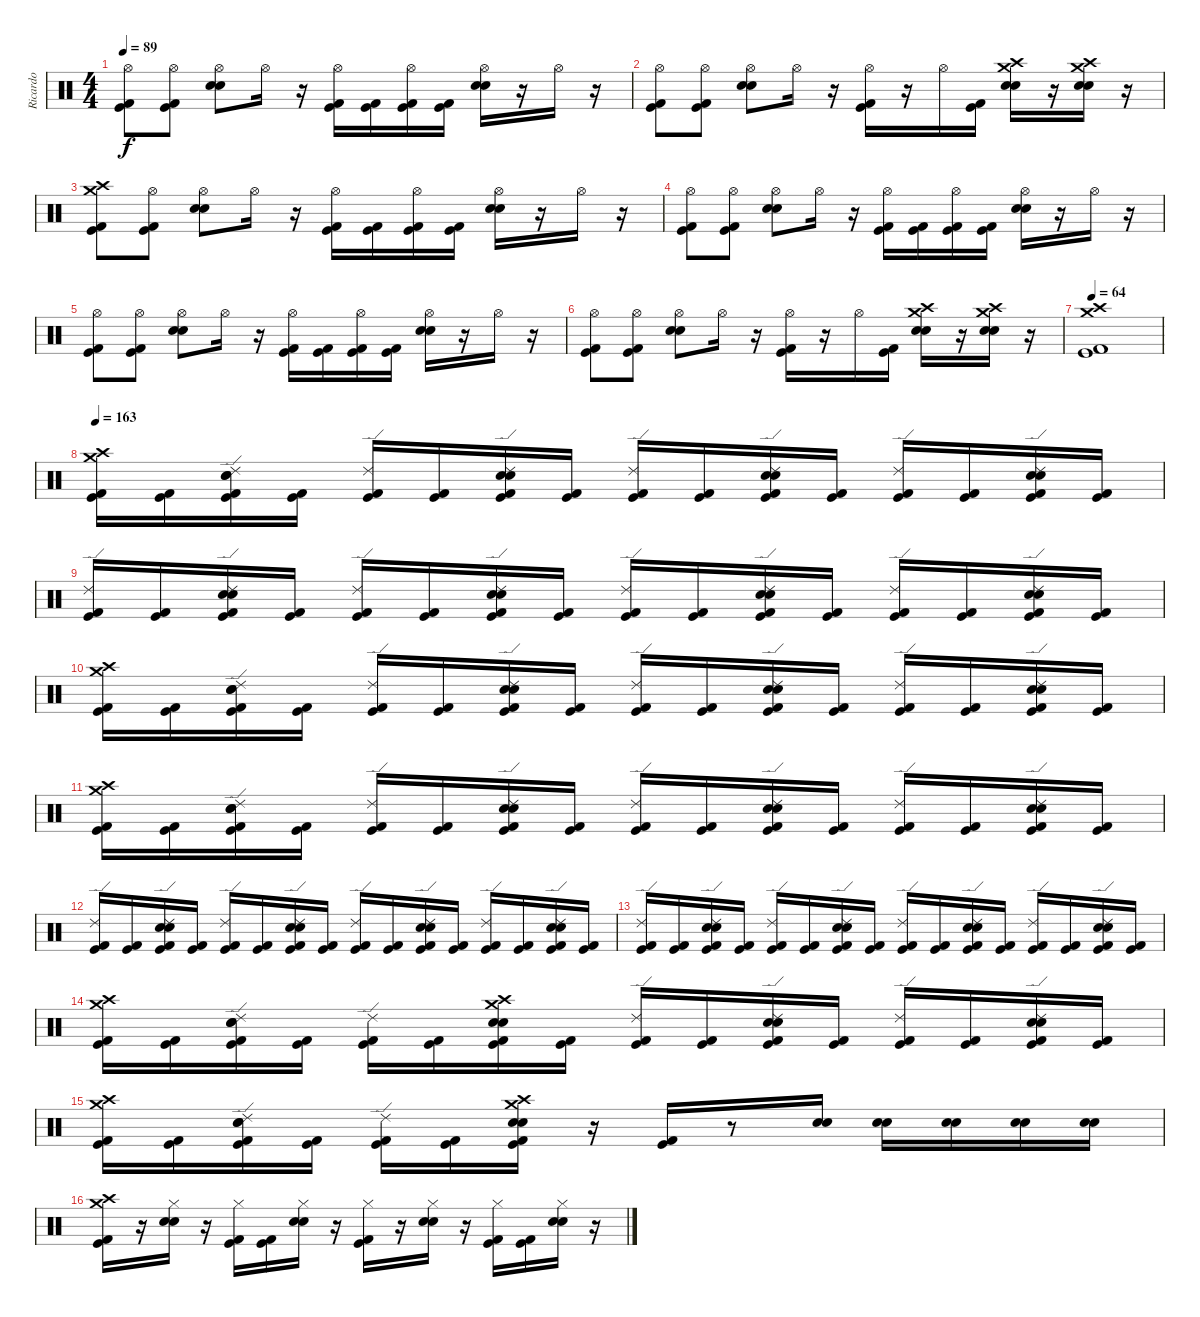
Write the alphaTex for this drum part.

\track ("Ricardo" "Ricardo") {instrument percussion}
\staff {score}
\articulation defaults
\ts (4 4)
\tempo 89
\clef neutral
\ks c
("Hi-Hat (open)" "Kick (hit) 2" "Kick (hit)").8{dy f} ("Hi-Hat (open)" "Kick (hit) 2" "Kick (hit)").8 ("Hi-Hat (open)" "Electric Snare (hit)" "Snare (hit) 2").8 "Hi-Hat (open)".16 r.16 ("Hi-Hat (open)" "Kick (hit) 2" "Kick (hit)").16 ("Kick (hit) 2" "Kick (hit)").16 ("Hi-Hat (open)" "Kick (hit) 2" "Kick (hit)").16 ("Kick (hit) 2" "Kick (hit)").16 ("Hi-Hat (open)" "Electric Snare (hit)" "Snare (hit) 2").16 r.16 "Hi-Hat (open)".16 r.16 |
("Hi-Hat (open)" "Kick (hit) 2" "Kick (hit)").8 ("Hi-Hat (open)" "Kick (hit) 2" "Kick (hit)").8 ("Hi-Hat (open)" "Electric Snare (hit)" "Snare (hit) 2").8 "Hi-Hat (open)".16 r.16 ("Hi-Hat (open)" "Kick (hit) 2" "Kick (hit)").16 r.16 "Hi-Hat (open)".16 ("Kick (hit) 2" "Kick (hit)").16 ("Crash high (hit)" "Crash medium (hit)" "Electric Snare (hit)" "Snare (hit) 2").16 r.16 ("Crash high (hit)" "Electric Snare (hit)" "Snare (hit) 2" "Crash medium (hit)").16 r.16 |
("Crash medium (hit)" "Crash high (hit)" "Kick (hit) 2" "Kick (hit)").8 ("Hi-Hat (open)" "Kick (hit) 2" "Kick (hit)").8 ("Hi-Hat (open)" "Electric Snare (hit)" "Snare (hit) 2").8 "Hi-Hat (open)".16 r.16 ("Hi-Hat (open)" "Kick (hit) 2" "Kick (hit)").16 ("Kick (hit) 2" "Kick (hit)").16 ("Hi-Hat (open)" "Kick (hit) 2" "Kick (hit)").16 ("Kick (hit) 2" "Kick (hit)").16 ("Hi-Hat (open)" "Electric Snare (hit)" "Snare (hit) 2").16 r.16 "Hi-Hat (open)".16 r.16 |
("Hi-Hat (open)" "Kick (hit) 2" "Kick (hit)").8 ("Hi-Hat (open)" "Kick (hit) 2" "Kick (hit)").8 ("Hi-Hat (open)" "Electric Snare (hit)" "Snare (hit) 2").8 "Hi-Hat (open)".16 r.16 ("Hi-Hat (open)" "Kick (hit) 2" "Kick (hit)").16 ("Kick (hit) 2" "Kick (hit)").16 ("Hi-Hat (open)" "Kick (hit) 2" "Kick (hit)").16 ("Kick (hit) 2" "Kick (hit)").16 ("Hi-Hat (open)" "Electric Snare (hit)" "Snare (hit) 2").16 r.16 "Hi-Hat (open)".16 r.16 |
("Hi-Hat (open)" "Kick (hit) 2" "Kick (hit)").8 ("Hi-Hat (open)" "Kick (hit) 2" "Kick (hit)").8 ("Hi-Hat (open)" "Electric Snare (hit)" "Snare (hit) 2").8 "Hi-Hat (open)".16 r.16 ("Hi-Hat (open)" "Kick (hit) 2" "Kick (hit)").16 ("Kick (hit) 2" "Kick (hit)").16 ("Hi-Hat (open)" "Kick (hit) 2" "Kick (hit)").16 ("Kick (hit) 2" "Kick (hit)").16 ("Hi-Hat (open)" "Electric Snare (hit)" "Snare (hit) 2").16 r.16 "Hi-Hat (open)".16 r.16 |
("Hi-Hat (open)" "Kick (hit) 2" "Kick (hit)").8 ("Hi-Hat (open)" "Kick (hit) 2" "Kick (hit)").8 ("Hi-Hat (open)" "Electric Snare (hit)" "Snare (hit) 2").8 "Hi-Hat (open)".16 r.16 ("Hi-Hat (open)" "Kick (hit) 2" "Kick (hit)").16 r.16 "Hi-Hat (open)".16 ("Kick (hit) 2" "Kick (hit)").16 ("Crash high (hit)" "Crash medium (hit)" "Electric Snare (hit)" "Snare (hit) 2").16 r.16 ("Crash high (hit)" "Electric Snare (hit)" "Snare (hit) 2" "Crash medium (hit)").16 r.16 |
\tempo 64
("Kick (hit) 2" "Kick (hit)" "Crash high (hit)" "Crash medium (hit)").1 |
\tempo 163
("Crash high (hit)" "Crash medium (hit)" "Kick (hit) 2" "Kick (hit)").16 ("Kick (hit) 2" "Kick (hit)").16 ("Electric Snare (hit)" "Snare (hit) 2" "Ride (edge) 2" "Kick (hit) 2" "Kick (hit)").16 ("Kick (hit) 2" "Kick (hit)").16 ("Ride (edge) 2" "Kick (hit) 2" "Kick (hit)").16 ("Kick (hit) 2" "Kick (hit)").16 ("Electric Snare (hit)" "Snare (hit) 2" "Ride (edge) 2" "Kick (hit)" "Kick (hit) 2").16 ("Kick (hit) 2" "Kick (hit)").16 ("Ride (edge) 2" "Kick (hit) 2" "Kick (hit)").16 ("Kick (hit) 2" "Kick (hit)").16 ("Electric Snare (hit)" "Snare (hit) 2" "Ride (edge) 2" "Kick (hit) 2" "Kick (hit)").16 ("Kick (hit) 2" "Kick (hit)").16 ("Ride (edge) 2" "Kick (hit) 2" "Kick (hit)").16 ("Kick (hit) 2" "Kick (hit)").16 ("Electric Snare (hit)" "Snare (hit) 2" "Ride (edge) 2" "Kick (hit) 2" "Kick (hit)").16 ("Kick (hit) 2" "Kick (hit)").16 |
("Ride (edge) 2" "Kick (hit) 2" "Kick (hit)").16 ("Kick (hit) 2" "Kick (hit)").16 ("Electric Snare (hit)" "Snare (hit) 2" "Ride (edge) 2" "Kick (hit) 2" "Kick (hit)").16 ("Kick (hit) 2" "Kick (hit)").16 ("Ride (edge) 2" "Kick (hit) 2" "Kick (hit)").16 ("Kick (hit) 2" "Kick (hit)").16 ("Electric Snare (hit)" "Snare (hit) 2" "Ride (edge) 2" "Kick (hit)" "Kick (hit) 2").16 ("Kick (hit) 2" "Kick (hit)").16 ("Ride (edge) 2" "Kick (hit) 2" "Kick (hit)").16 ("Kick (hit) 2" "Kick (hit)").16 ("Electric Snare (hit)" "Snare (hit) 2" "Ride (edge) 2" "Kick (hit) 2" "Kick (hit)").16 ("Kick (hit) 2" "Kick (hit)").16 ("Ride (edge) 2" "Kick (hit) 2" "Kick (hit)").16 ("Kick (hit) 2" "Kick (hit)").16 ("Electric Snare (hit)" "Snare (hit) 2" "Ride (edge) 2" "Kick (hit) 2" "Kick (hit)").16 ("Kick (hit) 2" "Kick (hit)").16 |
("Crash high (hit)" "Crash medium (hit)" "Kick (hit) 2" "Kick (hit)").16 ("Kick (hit) 2" "Kick (hit)").16 ("Electric Snare (hit)" "Snare (hit) 2" "Ride (edge) 2" "Kick (hit) 2" "Kick (hit)").16 ("Kick (hit) 2" "Kick (hit)").16 ("Ride (edge) 2" "Kick (hit) 2" "Kick (hit)").16 ("Kick (hit) 2" "Kick (hit)").16 ("Electric Snare (hit)" "Snare (hit) 2" "Ride (edge) 2" "Kick (hit)" "Kick (hit) 2").16 ("Kick (hit) 2" "Kick (hit)").16 ("Ride (edge) 2" "Kick (hit) 2" "Kick (hit)").16 ("Kick (hit) 2" "Kick (hit)").16 ("Electric Snare (hit)" "Snare (hit) 2" "Ride (edge) 2" "Kick (hit) 2" "Kick (hit)").16 ("Kick (hit) 2" "Kick (hit)").16 ("Ride (edge) 2" "Kick (hit) 2" "Kick (hit)").16 ("Kick (hit) 2" "Kick (hit)").16 ("Electric Snare (hit)" "Snare (hit) 2" "Ride (edge) 2" "Kick (hit) 2" "Kick (hit)").16 ("Kick (hit) 2" "Kick (hit)").16 |
("Crash high (hit)" "Crash medium (hit)" "Kick (hit) 2" "Kick (hit)").16 ("Kick (hit) 2" "Kick (hit)").16 ("Electric Snare (hit)" "Snare (hit) 2" "Ride (edge) 2" "Kick (hit) 2" "Kick (hit)").16 ("Kick (hit) 2" "Kick (hit)").16 ("Ride (edge) 2" "Kick (hit) 2" "Kick (hit)").16 ("Kick (hit) 2" "Kick (hit)").16 ("Electric Snare (hit)" "Snare (hit) 2" "Ride (edge) 2" "Kick (hit)" "Kick (hit) 2").16 ("Kick (hit) 2" "Kick (hit)").16 ("Ride (edge) 2" "Kick (hit) 2" "Kick (hit)").16 ("Kick (hit) 2" "Kick (hit)").16 ("Electric Snare (hit)" "Snare (hit) 2" "Ride (edge) 2" "Kick (hit) 2" "Kick (hit)").16 ("Kick (hit) 2" "Kick (hit)").16 ("Ride (edge) 2" "Kick (hit) 2" "Kick (hit)").16 ("Kick (hit) 2" "Kick (hit)").16 ("Electric Snare (hit)" "Snare (hit) 2" "Ride (edge) 2" "Kick (hit) 2" "Kick (hit)").16 ("Kick (hit) 2" "Kick (hit)").16 |
("Ride (edge) 2" "Kick (hit) 2" "Kick (hit)").16 ("Kick (hit) 2" "Kick (hit)").16 ("Electric Snare (hit)" "Snare (hit) 2" "Ride (edge) 2" "Kick (hit) 2" "Kick (hit)").16 ("Kick (hit) 2" "Kick (hit)").16 ("Ride (edge) 2" "Kick (hit) 2" "Kick (hit)").16 ("Kick (hit) 2" "Kick (hit)").16 ("Electric Snare (hit)" "Snare (hit) 2" "Ride (edge) 2" "Kick (hit)" "Kick (hit) 2").16 ("Kick (hit) 2" "Kick (hit)").16 ("Ride (edge) 2" "Kick (hit) 2" "Kick (hit)").16 ("Kick (hit) 2" "Kick (hit)").16 ("Electric Snare (hit)" "Snare (hit) 2" "Ride (edge) 2" "Kick (hit) 2" "Kick (hit)").16 ("Kick (hit) 2" "Kick (hit)").16 ("Ride (edge) 2" "Kick (hit) 2" "Kick (hit)").16 ("Kick (hit) 2" "Kick (hit)").16 ("Electric Snare (hit)" "Snare (hit) 2" "Ride (edge) 2" "Kick (hit) 2" "Kick (hit)").16 ("Kick (hit) 2" "Kick (hit)").16 |
("Ride (edge) 2" "Kick (hit) 2" "Kick (hit)").16 ("Kick (hit) 2" "Kick (hit)").16 ("Electric Snare (hit)" "Snare (hit) 2" "Ride (edge) 2" "Kick (hit) 2" "Kick (hit)").16 ("Kick (hit) 2" "Kick (hit)").16 ("Ride (edge) 2" "Kick (hit) 2" "Kick (hit)").16 ("Kick (hit) 2" "Kick (hit)").16 ("Electric Snare (hit)" "Snare (hit) 2" "Ride (edge) 2" "Kick (hit)" "Kick (hit) 2").16 ("Kick (hit) 2" "Kick (hit)").16 ("Ride (edge) 2" "Kick (hit) 2" "Kick (hit)").16 ("Kick (hit) 2" "Kick (hit)").16 ("Electric Snare (hit)" "Snare (hit) 2" "Ride (edge) 2" "Kick (hit) 2" "Kick (hit)").16 ("Kick (hit) 2" "Kick (hit)").16 ("Ride (edge) 2" "Kick (hit) 2" "Kick (hit)").16 ("Kick (hit) 2" "Kick (hit)").16 ("Electric Snare (hit)" "Snare (hit) 2" "Ride (edge) 2" "Kick (hit) 2" "Kick (hit)").16 ("Kick (hit) 2" "Kick (hit)").16 |
("Crash high (hit)" "Crash medium (hit)" "Kick (hit) 2" "Kick (hit)").16 ("Kick (hit) 2" "Kick (hit)").16 ("Electric Snare (hit)" "Snare (hit) 2" "Ride (edge) 2" "Kick (hit) 2" "Kick (hit)").16 ("Kick (hit) 2" "Kick (hit)").16 ("Ride (edge) 2" "Kick (hit) 2" "Kick (hit)").16 ("Kick (hit) 2" "Kick (hit)").16 ("Crash high (hit)" "Crash medium (hit)" "Electric Snare (hit)" "Snare (hit) 2" "Kick (hit)" "Kick (hit) 2").16 ("Kick (hit) 2" "Kick (hit)").16 ("Ride (edge) 2" "Kick (hit) 2" "Kick (hit)").16 ("Kick (hit) 2" "Kick (hit)").16 ("Electric Snare (hit)" "Snare (hit) 2" "Ride (edge) 2" "Kick (hit) 2" "Kick (hit)").16 ("Kick (hit) 2" "Kick (hit)").16 ("Ride (edge) 2" "Kick (hit) 2" "Kick (hit)").16 ("Kick (hit) 2" "Kick (hit)").16 ("Electric Snare (hit)" "Snare (hit) 2" "Ride (edge) 2" "Kick (hit) 2" "Kick (hit)").16 ("Kick (hit) 2" "Kick (hit)").16 |
("Crash high (hit)" "Crash medium (hit)" "Kick (hit) 2" "Kick (hit)").16 ("Kick (hit) 2" "Kick (hit)").16 ("Electric Snare (hit)" "Snare (hit) 2" "Ride (edge) 2" "Kick (hit) 2" "Kick (hit)").16 ("Kick (hit) 2" "Kick (hit)").16 ("Ride (edge) 2" "Kick (hit) 2" "Kick (hit)").16 ("Kick (hit) 2" "Kick (hit)").16 ("Crash high (hit)" "Crash medium (hit)" "Electric Snare (hit)" "Snare (hit) 2" "Kick (hit)" "Kick (hit) 2").16 r.16 ("Kick (hit) 2" "Kick (hit)").16 r.8 ("Electric Snare (hit)" "Snare (hit) 2").16 ("Electric Snare (hit)" "Snare (hit) 2").16 ("Electric Snare (hit)" "Snare (hit) 2").16 ("Electric Snare (hit)" "Snare (hit) 2").16 ("Electric Snare (hit)" "Snare (hit) 2").16 |
("Crash high (hit)" "Crash medium (hit)" "Kick (hit) 2" "Kick (hit)").16 r.16 ("Hi-Hat (closed)" "Electric Snare (hit)" "Snare (hit) 2").16 r.16 ("Kick (hit)" "Kick (hit) 2" "Hi-Hat (closed)").16 ("Kick (hit)" "Kick (hit) 2").16 ("Electric Snare (hit)" "Snare (hit) 2" "Hi-Hat (closed)").16 r.16 ("Kick (hit)" "Kick (hit) 2" "Hi-Hat (closed)").16 r.16 ("Electric Snare (hit)" "Snare (hit) 2" "Hi-Hat (closed)").16 r.16 ("Kick (hit) 2" "Kick (hit)" "Hi-Hat (closed)").16 ("Kick (hit) 2" "Kick (hit)").16 ("Electric Snare (hit)" "Snare (hit) 2" "Hi-Hat (closed)").16 r.16
